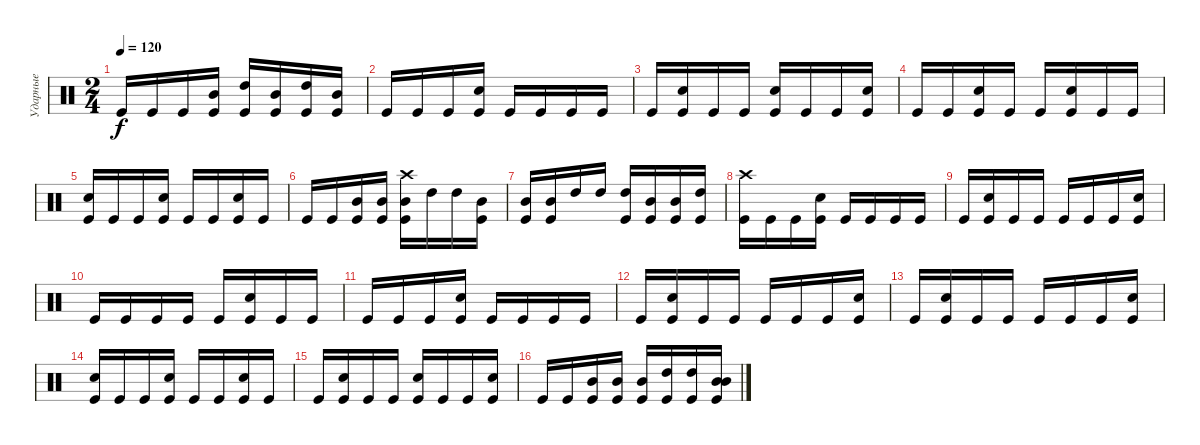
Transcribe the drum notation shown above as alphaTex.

\track ("Ударные" "Ударные") {instrument percussion}
\staff {score}
\articulation defaults
\ts (2 4)
\tempo 120
\clef neutral
\ks c "Kick (hit)".16{dy f} "Kick (hit)".16 "Kick (hit)".16
("Mid Tom (hit)" "Kick (hit)").16 ("High Tom (hit)" "Kick (hit)").16 ("Mid Tom (hit)" "Kick (hit)").16 ("High Tom (hit)" "Kick (hit)").16 ("Mid Tom (hit)" "Kick (hit)").16 |
"Kick (hit)".16 "Kick (hit)".16 "Kick (hit)".16 ("Electric Snare (hit)" "Kick (hit)").16 "Kick (hit)".16 "Kick (hit)".16 "Kick (hit)".16 "Kick (hit)".16 |
"Kick (hit)".16 ("Electric Snare (hit)" "Kick (hit)").16 "Kick (hit)".16 "Kick (hit)".16 ("Electric Snare (hit)" "Kick (hit)").16 "Kick (hit)".16 "Kick (hit)".16 ("Electric Snare (hit)" "Kick (hit)").16 |
"Kick (hit)".16 "Kick (hit)".16 ("Electric Snare (hit)" "Kick (hit)").16 "Kick (hit)".16 "Kick (hit)".16 ("Electric Snare (hit)" "Kick (hit)").16 "Kick (hit)".16 "Kick (hit)".16 |
("Electric Snare (hit)" "Kick (hit)").16 "Kick (hit)".16 "Kick (hit)".16 ("Electric Snare (hit)" "Kick (hit)").16 "Kick (hit)".16 "Kick (hit)".16 ("Electric Snare (hit)" "Kick (hit)").16 "Kick (hit)".16 |
"Kick (hit)".16 "Kick (hit)".16 ("Mid Tom (hit)" "Kick (hit)").16 ("Mid Tom (hit)" "Kick (hit)").16 ("Crash high (hit)" "Mid Tom (hit)" "Kick (hit)").16 "High Tom (hit)".16 "High Tom (hit)".16 ("Mid Tom (hit)" "Kick (hit)").16 |
("Mid Tom (hit)" "Kick (hit)").16 ("Mid Tom (hit)" "Kick (hit)").16 "High Tom (hit)".16 "High Tom (hit)".16 ("High Tom (hit)" "Kick (hit)").16 ("Mid Tom (hit)" "Kick (hit)").16 ("Mid Tom (hit)" "Kick (hit)").16 ("High Tom (hit)" "Kick (hit)").16 |
("Crash high (hit)" "Kick (hit)").16 "Kick (hit)".16 "Kick (hit)".16 ("Electric Snare (hit)" "Kick (hit)").16 "Kick (hit)".16 "Kick (hit)".16 "Kick (hit)".16 "Kick (hit)".16 |
"Kick (hit)".16 ("Electric Snare (hit)" "Kick (hit)").16 "Kick (hit)".16 "Kick (hit)".16 "Kick (hit)".16 "Kick (hit)".16 "Kick (hit)".16 ("Electric Snare (hit)" "Kick (hit)").16 |
"Kick (hit)".16 "Kick (hit)".16 "Kick (hit)".16 "Kick (hit)".16 "Kick (hit)".16 ("Electric Snare (hit)" "Kick (hit)").16 "Kick (hit)".16 "Kick (hit)".16 |
"Kick (hit)".16 "Kick (hit)".16 "Kick (hit)".16 ("Electric Snare (hit)" "Kick (hit)").16 "Kick (hit)".16 "Kick (hit)".16 "Kick (hit)".16 "Kick (hit)".16 |
"Kick (hit)".16 ("Electric Snare (hit)" "Kick (hit)").16 "Kick (hit)".16 "Kick (hit)".16 "Kick (hit)".16 "Kick (hit)".16 "Kick (hit)".16 ("Electric Snare (hit)" "Kick (hit)").16 |
"Kick (hit)".16 ("Electric Snare (hit)" "Kick (hit)").16 "Kick (hit)".16 "Kick (hit)".16 "Kick (hit)".16 "Kick (hit)".16 "Kick (hit)".16 ("Electric Snare (hit)" "Kick (hit)").16 |
("Electric Snare (hit)" "Kick (hit)").16 "Kick (hit)".16 "Kick (hit)".16 ("Electric Snare (hit)" "Kick (hit)").16 "Kick (hit)".16 "Kick (hit)".16 ("Electric Snare (hit)" "Kick (hit)").16 "Kick (hit)".16 |
"Kick (hit)".16 ("Electric Snare (hit)" "Kick (hit)").16 "Kick (hit)".16 "Kick (hit)".16 ("Electric Snare (hit)" "Kick (hit)").16 "Kick (hit)".16 "Kick (hit)".16 ("Electric Snare (hit)" "Kick (hit)").16 |
"Kick (hit)".16 "Kick (hit)".16 ("Mid Tom (hit)" "Kick (hit)").16 ("Mid Tom (hit)" "Kick (hit)").16 ("Mid Tom (hit)" "Kick (hit)").16 ("High Tom (hit)" "Kick (hit)").16 ("High Tom (hit)" "Kick (hit)").16 ("Mid Tom (hit)" "Mid Tom (hit)" "Kick (hit)").16
